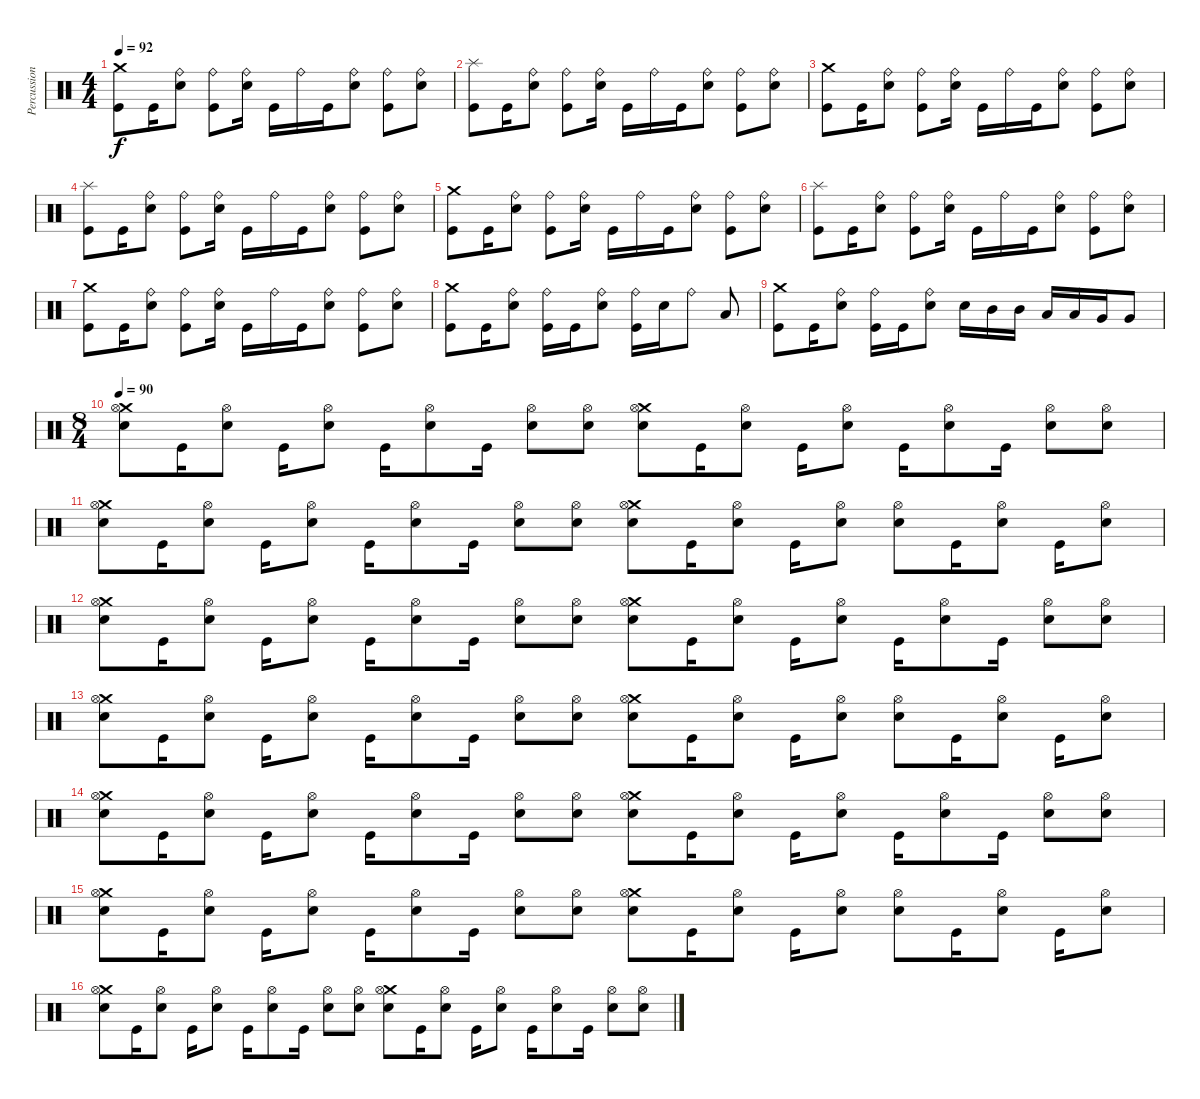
\track ("Percussion" "Percussion") {instrument percussion}
\staff {score}
\articulation defaults
\ts (4 4)
\tempo 92
\clef neutral
\ks c
("Kick (hit)" "Crash medium (hit)").8{dy f} "Kick (hit)".16 ("Snare (hit) 2" "Ride (bell)").8 ("Kick (hit)" "Ride (bell)").8 ("Snare (hit) 2" "Ride (bell)").16 "Kick (hit)".16 "Ride (bell)".16 "Kick (hit)".16 ("Snare (hit) 2" "Ride (bell)").8 ("Kick (hit)" "Ride (bell)").8 ("Snare (hit) 2" "Ride (bell)").8 |
("Kick (hit)" "Splash (hit)").8 "Kick (hit)".16 ("Snare (hit) 2" "Ride (bell)").8 ("Kick (hit)" "Ride (bell)").8 ("Snare (hit) 2" "Ride (bell)").16 "Kick (hit)".16 "Ride (bell)".16 "Kick (hit)".16 ("Snare (hit) 2" "Ride (bell)").8 ("Kick (hit)" "Ride (bell)").8 ("Snare (hit) 2" "Ride (bell)").8 |
("Kick (hit)" "Crash medium (hit)").8 "Kick (hit)".16 ("Snare (hit) 2" "Ride (bell)").8 ("Kick (hit)" "Ride (bell)").8 ("Snare (hit) 2" "Ride (bell)").16 "Kick (hit)".16 "Ride (bell)".16 "Kick (hit)".16 ("Snare (hit) 2" "Ride (bell)").8 ("Kick (hit)" "Ride (bell)").8 ("Snare (hit) 2" "Ride (bell)").8 |
("Kick (hit)" "Splash (hit)").8 "Kick (hit)".16 ("Snare (hit) 2" "Ride (bell)").8 ("Kick (hit)" "Ride (bell)").8 ("Snare (hit) 2" "Ride (bell)").16 "Kick (hit)".16 "Ride (bell)".16 "Kick (hit)".16 ("Snare (hit) 2" "Ride (bell)").8 ("Kick (hit)" "Ride (bell)").8 ("Snare (hit) 2" "Ride (bell)").8 |
("Kick (hit)" "Crash medium (hit)").8 "Kick (hit)".16 ("Snare (hit) 2" "Ride (bell)").8 ("Kick (hit)" "Ride (bell)").8 ("Snare (hit) 2" "Ride (bell)").16 "Kick (hit)".16 "Ride (bell)".16 "Kick (hit)".16 ("Snare (hit) 2" "Ride (bell)").8 ("Kick (hit)" "Ride (bell)").8 ("Snare (hit) 2" "Ride (bell)").8 |
("Kick (hit)" "Splash (hit)").8 "Kick (hit)".16 ("Snare (hit) 2" "Ride (bell)").8 ("Kick (hit)" "Ride (bell)").8 ("Snare (hit) 2" "Ride (bell)").16 "Kick (hit)".16 "Ride (bell)".16 "Kick (hit)".16 ("Snare (hit) 2" "Ride (bell)").8 ("Kick (hit)" "Ride (bell)").8 ("Snare (hit) 2" "Ride (bell)").8 |
("Kick (hit)" "Crash medium (hit)").8 "Kick (hit)".16 ("Snare (hit) 2" "Ride (bell)").8 ("Kick (hit)" "Ride (bell)").8 ("Snare (hit) 2" "Ride (bell)").16 "Kick (hit)".16 "Ride (bell)".16 "Kick (hit)".16 ("Snare (hit) 2" "Ride (bell)").8 ("Kick (hit)" "Ride (bell)").8 ("Snare (hit) 2" "Ride (bell)").8 |
("Kick (hit)" "Crash medium (hit)").8 "Kick (hit)".16 ("Snare (hit) 2" "Ride (bell)").8 ("Kick (hit)" "Ride (bell)").16 "Kick (hit)".16 ("Snare (hit) 2" "Ride (bell)").8 ("Kick (hit)" "Ride (bell)").16 "Snare (hit) 2".16 "Ride (bell)".8 "Low Tom (hit)".8 |
("Kick (hit)" "Crash medium (hit)").8 "Kick (hit)".16 ("Snare (hit) 2" "Ride (bell)").8 ("Kick (hit)" "Ride (bell)").16 "Kick (hit)".16 ("Snare (hit) 2" "Ride (bell)").8 "Snare (hit) 2".16 "Mid Tom (hit)".16 "Mid Tom (hit)".16 "Low Tom (hit)".16 "Low Tom (hit)".16 "Very Low Tom (hit)".16 "Very Low Tom (hit)".8 |
\ts (8 4)
\tempo 90
("Crash medium (hit)" "Hi-Hat (open)" "Snare (hit) 2").8 "Kick (hit)".16 ("Hi-Hat (open)" "Snare (hit) 2").8 "Kick (hit)".16 ("Hi-Hat (open)" "Snare (hit) 2").8 "Kick (hit)".16 ("Hi-Hat (open)" "Snare (hit) 2").8 "Kick (hit)".16 ("Hi-Hat (open)" "Snare (hit) 2").8 ("Hi-Hat (open)" "Snare (hit) 2").8 ("Crash medium (hit)" "Hi-Hat (open)" "Snare (hit) 2").8 "Kick (hit)".16 ("Hi-Hat (open)" "Snare (hit) 2").8 "Kick (hit)".16 ("Hi-Hat (open)" "Snare (hit) 2").8 "Kick (hit)".16 ("Hi-Hat (open)" "Snare (hit) 2").8 "Kick (hit)".16 ("Hi-Hat (open)" "Snare (hit) 2").8 ("Hi-Hat (open)" "Snare (hit) 2").8 |
("Crash medium (hit)" "Hi-Hat (open)" "Snare (hit) 2").8 "Kick (hit)".16 ("Hi-Hat (open)" "Snare (hit) 2").8 "Kick (hit)".16 ("Hi-Hat (open)" "Snare (hit) 2").8 "Kick (hit)".16 ("Hi-Hat (open)" "Snare (hit) 2").8 "Kick (hit)".16 ("Hi-Hat (open)" "Snare (hit) 2").8 ("Hi-Hat (open)" "Snare (hit) 2").8 ("Crash medium (hit)" "Hi-Hat (open)" "Snare (hit) 2").8 "Kick (hit)".16 ("Hi-Hat (open)" "Snare (hit) 2").8 "Kick (hit)".16 ("Hi-Hat (open)" "Snare (hit) 2").8 ("Hi-Hat (open)" "Snare (hit) 2").8 "Kick (hit)".16 ("Hi-Hat (open)" "Snare (hit) 2").8 "Kick (hit)".16 ("Hi-Hat (open)" "Snare (hit) 2").8 |
("Crash medium (hit)" "Hi-Hat (open)" "Snare (hit) 2").8 "Kick (hit)".16 ("Hi-Hat (open)" "Snare (hit) 2").8 "Kick (hit)".16 ("Hi-Hat (open)" "Snare (hit) 2").8 "Kick (hit)".16 ("Hi-Hat (open)" "Snare (hit) 2").8 "Kick (hit)".16 ("Hi-Hat (open)" "Snare (hit) 2").8 ("Hi-Hat (open)" "Snare (hit) 2").8 ("Crash medium (hit)" "Hi-Hat (open)" "Snare (hit) 2").8 "Kick (hit)".16 ("Hi-Hat (open)" "Snare (hit) 2").8 "Kick (hit)".16 ("Hi-Hat (open)" "Snare (hit) 2").8 "Kick (hit)".16 ("Hi-Hat (open)" "Snare (hit) 2").8 "Kick (hit)".16 ("Hi-Hat (open)" "Snare (hit) 2").8 ("Hi-Hat (open)" "Snare (hit) 2").8 |
("Crash medium (hit)" "Hi-Hat (open)" "Snare (hit) 2").8 "Kick (hit)".16 ("Hi-Hat (open)" "Snare (hit) 2").8 "Kick (hit)".16 ("Hi-Hat (open)" "Snare (hit) 2").8 "Kick (hit)".16 ("Hi-Hat (open)" "Snare (hit) 2").8 "Kick (hit)".16 ("Hi-Hat (open)" "Snare (hit) 2").8 ("Hi-Hat (open)" "Snare (hit) 2").8 ("Crash medium (hit)" "Hi-Hat (open)" "Snare (hit) 2").8 "Kick (hit)".16 ("Hi-Hat (open)" "Snare (hit) 2").8 "Kick (hit)".16 ("Hi-Hat (open)" "Snare (hit) 2").8 ("Hi-Hat (open)" "Snare (hit) 2").8 "Kick (hit)".16 ("Hi-Hat (open)" "Snare (hit) 2").8 "Kick (hit)".16 ("Hi-Hat (open)" "Snare (hit) 2").8 |
("Crash medium (hit)" "Hi-Hat (open)" "Snare (hit) 2").8 "Kick (hit)".16 ("Hi-Hat (open)" "Snare (hit) 2").8 "Kick (hit)".16 ("Hi-Hat (open)" "Snare (hit) 2").8 "Kick (hit)".16 ("Hi-Hat (open)" "Snare (hit) 2").8 "Kick (hit)".16 ("Hi-Hat (open)" "Snare (hit) 2").8 ("Hi-Hat (open)" "Snare (hit) 2").8 ("Crash medium (hit)" "Hi-Hat (open)" "Snare (hit) 2").8 "Kick (hit)".16 ("Hi-Hat (open)" "Snare (hit) 2").8 "Kick (hit)".16 ("Hi-Hat (open)" "Snare (hit) 2").8 "Kick (hit)".16 ("Hi-Hat (open)" "Snare (hit) 2").8 "Kick (hit)".16 ("Hi-Hat (open)" "Snare (hit) 2").8 ("Hi-Hat (open)" "Snare (hit) 2").8 |
("Crash medium (hit)" "Hi-Hat (open)" "Snare (hit) 2").8 "Kick (hit)".16 ("Hi-Hat (open)" "Snare (hit) 2").8 "Kick (hit)".16 ("Hi-Hat (open)" "Snare (hit) 2").8 "Kick (hit)".16 ("Hi-Hat (open)" "Snare (hit) 2").8 "Kick (hit)".16 ("Hi-Hat (open)" "Snare (hit) 2").8 ("Hi-Hat (open)" "Snare (hit) 2").8 ("Crash medium (hit)" "Hi-Hat (open)" "Snare (hit) 2").8 "Kick (hit)".16 ("Hi-Hat (open)" "Snare (hit) 2").8 "Kick (hit)".16 ("Hi-Hat (open)" "Snare (hit) 2").8 ("Hi-Hat (open)" "Snare (hit) 2").8 "Kick (hit)".16 ("Hi-Hat (open)" "Snare (hit) 2").8 "Kick (hit)".16 ("Hi-Hat (open)" "Snare (hit) 2").8 |
("Crash medium (hit)" "Hi-Hat (open)" "Snare (hit) 2").8 "Kick (hit)".16 ("Hi-Hat (open)" "Snare (hit) 2").8 "Kick (hit)".16 ("Hi-Hat (open)" "Snare (hit) 2").8 "Kick (hit)".16 ("Hi-Hat (open)" "Snare (hit) 2").8 "Kick (hit)".16 ("Hi-Hat (open)" "Snare (hit) 2").8 ("Hi-Hat (open)" "Snare (hit) 2").8 ("Crash medium (hit)" "Hi-Hat (open)" "Snare (hit) 2").8 "Kick (hit)".16 ("Hi-Hat (open)" "Snare (hit) 2").8 "Kick (hit)".16 ("Hi-Hat (open)" "Snare (hit) 2").8 "Kick (hit)".16 ("Hi-Hat (open)" "Snare (hit) 2").8 "Kick (hit)".16 ("Hi-Hat (open)" "Snare (hit) 2").8 ("Hi-Hat (open)" "Snare (hit) 2").8
